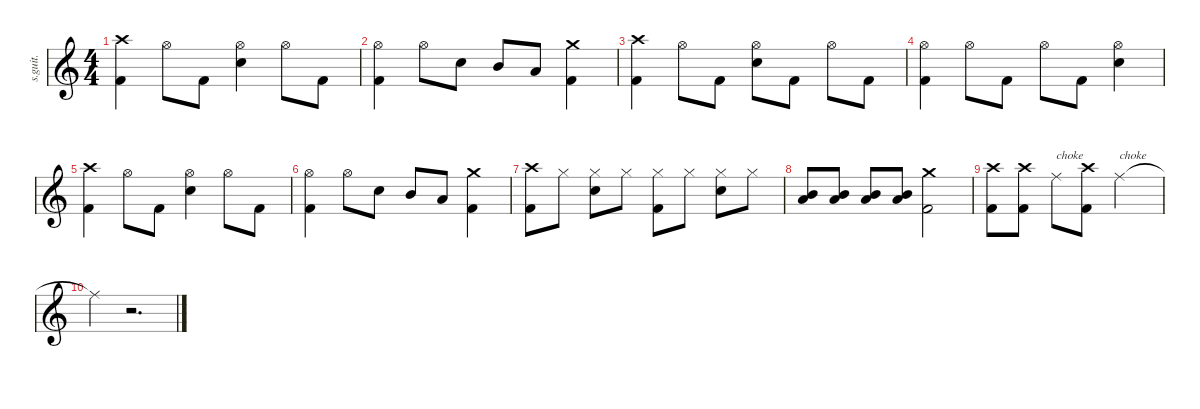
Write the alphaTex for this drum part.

\defaultSystemsLayout 4
\hideDynamics
\bracketExtendMode nobrackets
\track ("Nick Menza" "s.guit.") {instrument percussion}
\staff {score}
\articulation defaults
\ts (4 4)
\tempo (140 hide)
\clef g2
\ks c
("Crash high (hit)" "Kick (hit) 2").4{lyrics (0 "") lyrics (1 "") lyrics (2 "") lyrics (3 "") lyrics (4 "") dy f} "Hi-Hat (open)".8{lyrics (0 "") lyrics (1 "") lyrics (2 "") lyrics (3 "") lyrics (4 "")} "Kick (hit) 2".8{lyrics (0 "") lyrics (1 "") lyrics (2 "") lyrics (3 "") lyrics (4 "") dy fff} ("Hi-Hat (open)" "Snare (hit) 2").4{lyrics (0 "") lyrics (1 "") lyrics (2 "") lyrics (3 "") lyrics (4 "") dy f} "Hi-Hat (open)".8{lyrics (0 "") lyrics (1 "") lyrics (2 "") lyrics (3 "") lyrics (4 "")} "Kick (hit) 2".8{lyrics (0 "") lyrics (1 "") lyrics (2 "") lyrics (3 "") lyrics (4 "") dy fff} |
("Hi-Hat (open)" "Kick (hit) 2").4{lyrics (0 "") lyrics (1 "") lyrics (2 "") lyrics (3 "") lyrics (4 "")} "Hi-Hat (open)".8{lyrics (0 "") lyrics (1 "") lyrics (2 "") lyrics (3 "") lyrics (4 "") dy f} "Snare (hit) 2".8{lyrics (0 "") lyrics (1 "") lyrics (2 "") lyrics (3 "") lyrics (4 "")} "Mid Tom (hit)".8{lyrics (0 "") lyrics (1 "") lyrics (2 "") lyrics (3 "") lyrics (4 "")} "Low Tom (hit)".8{lyrics (0 "") lyrics (1 "") lyrics (2 "") lyrics (3 "") lyrics (4 "")} ("Crash medium (hit)" "Kick (hit) 2").4{lyrics (0 "") lyrics (1 "") lyrics (2 "") lyrics (3 "") lyrics (4 "")} |
("Crash high (hit)" "Kick (hit) 2").4{lyrics (0 "") lyrics (1 "") lyrics (2 "") lyrics (3 "") lyrics (4 "")} "Hi-Hat (open)".8{lyrics (0 "") lyrics (1 "") lyrics (2 "") lyrics (3 "") lyrics (4 "")} "Kick (hit) 2".8{lyrics (0 "") lyrics (1 "") lyrics (2 "") lyrics (3 "") lyrics (4 "") dy fff} ("Hi-Hat (open)" "Snare (hit) 2").8{lyrics (0 "") lyrics (1 "") lyrics (2 "") lyrics (3 "") lyrics (4 "") dy f} "Kick (hit) 2".8{lyrics (0 "") lyrics (1 "") lyrics (2 "") lyrics (3 "") lyrics (4 "") dy fff} "Hi-Hat (open)".8{lyrics (0 "") lyrics (1 "") lyrics (2 "") lyrics (3 "") lyrics (4 "") dy f} "Kick (hit) 2".8{lyrics (0 "") lyrics (1 "") lyrics (2 "") lyrics (3 "") lyrics (4 "") dy fff} |
("Hi-Hat (open)" "Kick (hit) 2").4{lyrics (0 "") lyrics (1 "") lyrics (2 "") lyrics (3 "") lyrics (4 "")} "Hi-Hat (open)".8{lyrics (0 "") lyrics (1 "") lyrics (2 "") lyrics (3 "") lyrics (4 "") dy f} "Kick (hit) 2".8{lyrics (0 "") lyrics (1 "") lyrics (2 "") lyrics (3 "") lyrics (4 "") dy fff} "Hi-Hat (open)".8{lyrics (0 "") lyrics (1 "") lyrics (2 "") lyrics (3 "") lyrics (4 "") dy f} "Kick (hit) 2".8{lyrics (0 "") lyrics (1 "") lyrics (2 "") lyrics (3 "") lyrics (4 "") dy fff} ("Hi-Hat (open)" "Snare (hit) 2").4{lyrics (0 "") lyrics (1 "") lyrics (2 "") lyrics (3 "") lyrics (4 "") dy f} |
("Crash high (hit)" "Kick (hit) 2").4{lyrics (0 "") lyrics (1 "") lyrics (2 "") lyrics (3 "") lyrics (4 "")} "Hi-Hat (open)".8{lyrics (0 "") lyrics (1 "") lyrics (2 "") lyrics (3 "") lyrics (4 "")} "Kick (hit) 2".8{lyrics (0 "") lyrics (1 "") lyrics (2 "") lyrics (3 "") lyrics (4 "") dy fff} ("Hi-Hat (open)" "Snare (hit) 2").4{lyrics (0 "") lyrics (1 "") lyrics (2 "") lyrics (3 "") lyrics (4 "") dy f} "Hi-Hat (open)".8{lyrics (0 "") lyrics (1 "") lyrics (2 "") lyrics (3 "") lyrics (4 "")} "Kick (hit) 2".8{lyrics (0 "") lyrics (1 "") lyrics (2 "") lyrics (3 "") lyrics (4 "") dy fff} |
("Hi-Hat (open)" "Kick (hit) 2").4{lyrics (0 "") lyrics (1 "") lyrics (2 "") lyrics (3 "") lyrics (4 "")} "Hi-Hat (open)".8{lyrics (0 "") lyrics (1 "") lyrics (2 "") lyrics (3 "") lyrics (4 "") dy f} "Snare (hit) 2".8{lyrics (0 "") lyrics (1 "") lyrics (2 "") lyrics (3 "") lyrics (4 "")} "Mid Tom (hit)".8{lyrics (0 "") lyrics (1 "") lyrics (2 "") lyrics (3 "") lyrics (4 "")} "Low Tom (hit)".8{lyrics (0 "") lyrics (1 "") lyrics (2 "") lyrics (3 "") lyrics (4 "")} ("Crash medium (hit)" "Kick (hit) 2").4{lyrics (0 "") lyrics (1 "") lyrics (2 "") lyrics (3 "") lyrics (4 "")} |
("Crash high (hit)" "Kick (hit) 2").8{lyrics (0 "") lyrics (1 "") lyrics (2 "") lyrics (3 "") lyrics (4 "")} "Hi-Hat (closed)".8{lyrics (0 "") lyrics (1 "") lyrics (2 "") lyrics (3 "") lyrics (4 "")} ("Hi-Hat (closed)" "Snare (hit) 2").8{lyrics (0 "") lyrics (1 "") lyrics (2 "") lyrics (3 "") lyrics (4 "")} "Hi-Hat (closed)".8{lyrics (0 "") lyrics (1 "") lyrics (2 "") lyrics (3 "") lyrics (4 "")} ("Hi-Hat (closed)" "Kick (hit) 2").8{lyrics (0 "") lyrics (1 "") lyrics (2 "") lyrics (3 "") lyrics (4 "")} "Hi-Hat (closed)".8{lyrics (0 "") lyrics (1 "") lyrics (2 "") lyrics (3 "") lyrics (4 "")} ("Hi-Hat (closed)" "Snare (hit) 2").8{lyrics (0 "") lyrics (1 "") lyrics (2 "") lyrics (3 "") lyrics (4 "")} "Hi-Hat (closed)".8{lyrics (0 "") lyrics (1 "") lyrics (2 "") lyrics (3 "") lyrics (4 "")} |
("Mid Tom (hit)" "Low Tom (hit)").8{lyrics (0 "") lyrics (1 "") lyrics (2 "") lyrics (3 "") lyrics (4 "")} ("Mid Tom (hit)" "Low Tom (hit)").8{lyrics (0 "") lyrics (1 "") lyrics (2 "") lyrics (3 "") lyrics (4 "")} ("Mid Tom (hit)" "Low Tom (hit)").8{lyrics (0 "") lyrics (1 "") lyrics (2 "") lyrics (3 "") lyrics (4 "")} ("Mid Tom (hit)" "Low Tom (hit)").8{lyrics (0 "") lyrics (1 "") lyrics (2 "") lyrics (3 "") lyrics (4 "")} ("Crash medium (hit)" "Kick (hit) 2").2{lyrics (0 "") lyrics (1 "") lyrics (2 "") lyrics (3 "") lyrics (4 "")} |
("Crash high (hit)" "Kick (hit) 2").8{lyrics (0 "") lyrics (1 "") lyrics (2 "") lyrics (3 "") lyrics (4 "")} ("Crash high (hit)" "Kick (hit) 2").8{lyrics (0 "") lyrics (1 "") lyrics (2 "") lyrics (3 "") lyrics (4 "")} "Ride (middle)".8{txt "choke" lyrics (0 "") lyrics (1 "") lyrics (2 "") lyrics (3 "") lyrics (4 "") dy ppp} ("Crash high (hit)" "Kick (hit) 2").8{lyrics (0 "") lyrics (1 "") lyrics (2 "") lyrics (3 "") lyrics (4 "") dy f} "Ride (middle)".2{txt "choke" lyrics (0 "") lyrics (1 "") lyrics (2 "") lyrics (3 "") lyrics (4 "") dy ppp} |
"Ride (middle)"{t}.4{lyrics (0 "") lyrics (1 "") lyrics (2 "") lyrics (3 "") lyrics (4 "")} r.2{d}
